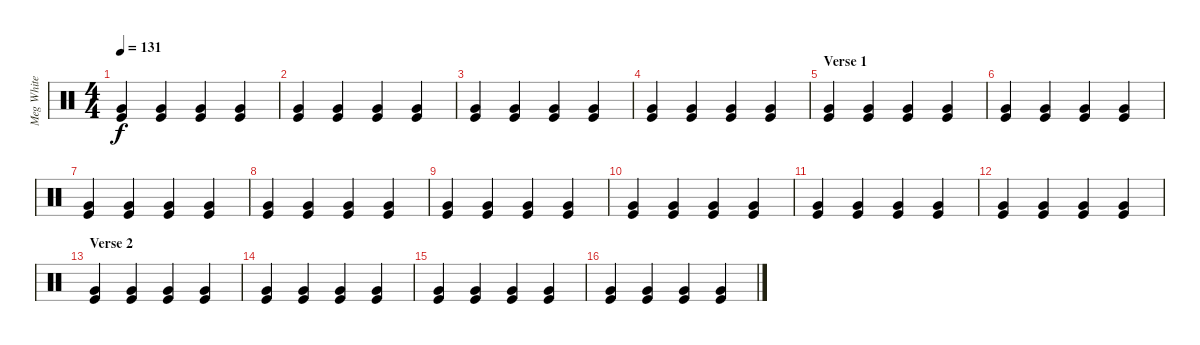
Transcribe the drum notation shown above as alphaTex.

\track ("Meg White" "Meg White") {instrument percussion}
\staff {score}
\articulation defaults
\ts (4 4)
\tempo 131
\clef neutral
\ks c
("Very Low Tom (hit)" "Kick (hit)").4{dy f} ("Very Low Tom (hit)" "Kick (hit)").4 ("Very Low Tom (hit)" "Kick (hit)").4 ("Very Low Tom (hit)" "Kick (hit)").4 |
("Very Low Tom (hit)" "Kick (hit)").4 ("Very Low Tom (hit)" "Kick (hit)").4 ("Very Low Tom (hit)" "Kick (hit)").4 ("Very Low Tom (hit)" "Kick (hit)").4 |
("Very Low Tom (hit)" "Kick (hit)").4 ("Very Low Tom (hit)" "Kick (hit)").4 ("Very Low Tom (hit)" "Kick (hit)").4 ("Very Low Tom (hit)" "Kick (hit)").4 |
("Very Low Tom (hit)" "Kick (hit)").4 ("Very Low Tom (hit)" "Kick (hit)").4 ("Very Low Tom (hit)" "Kick (hit)").4 ("Very Low Tom (hit)" "Kick (hit)").4 |
\section ("" "Verse 1")
("Very Low Tom (hit)" "Kick (hit)").4 ("Very Low Tom (hit)" "Kick (hit)").4 ("Very Low Tom (hit)" "Kick (hit)").4 ("Very Low Tom (hit)" "Kick (hit)").4 |
("Very Low Tom (hit)" "Kick (hit)").4 ("Very Low Tom (hit)" "Kick (hit)").4 ("Very Low Tom (hit)" "Kick (hit)").4 ("Very Low Tom (hit)" "Kick (hit)").4 |
("Very Low Tom (hit)" "Kick (hit)").4 ("Very Low Tom (hit)" "Kick (hit)").4 ("Very Low Tom (hit)" "Kick (hit)").4 ("Very Low Tom (hit)" "Kick (hit)").4 |
("Very Low Tom (hit)" "Kick (hit)").4 ("Very Low Tom (hit)" "Kick (hit)").4 ("Very Low Tom (hit)" "Kick (hit)").4 ("Very Low Tom (hit)" "Kick (hit)").4 |
("Very Low Tom (hit)" "Kick (hit)").4 ("Very Low Tom (hit)" "Kick (hit)").4 ("Very Low Tom (hit)" "Kick (hit)").4 ("Very Low Tom (hit)" "Kick (hit)").4 |
("Very Low Tom (hit)" "Kick (hit)").4 ("Very Low Tom (hit)" "Kick (hit)").4 ("Very Low Tom (hit)" "Kick (hit)").4 ("Very Low Tom (hit)" "Kick (hit)").4 |
("Very Low Tom (hit)" "Kick (hit)").4 ("Very Low Tom (hit)" "Kick (hit)").4 ("Very Low Tom (hit)" "Kick (hit)").4 ("Very Low Tom (hit)" "Kick (hit)").4 |
("Very Low Tom (hit)" "Kick (hit)").4 ("Very Low Tom (hit)" "Kick (hit)").4 ("Very Low Tom (hit)" "Kick (hit)").4 ("Very Low Tom (hit)" "Kick (hit)").4 |
\section ("" "Verse 2")
("Very Low Tom (hit)" "Kick (hit)").4 ("Very Low Tom (hit)" "Kick (hit)").4 ("Very Low Tom (hit)" "Kick (hit)").4 ("Very Low Tom (hit)" "Kick (hit)").4 |
("Very Low Tom (hit)" "Kick (hit)").4 ("Very Low Tom (hit)" "Kick (hit)").4 ("Very Low Tom (hit)" "Kick (hit)").4 ("Very Low Tom (hit)" "Kick (hit)").4 |
("Very Low Tom (hit)" "Kick (hit)").4 ("Very Low Tom (hit)" "Kick (hit)").4 ("Very Low Tom (hit)" "Kick (hit)").4 ("Very Low Tom (hit)" "Kick (hit)").4 |
("Very Low Tom (hit)" "Kick (hit)").4 ("Very Low Tom (hit)" "Kick (hit)").4 ("Very Low Tom (hit)" "Kick (hit)").4 ("Very Low Tom (hit)" "Kick (hit)").4
